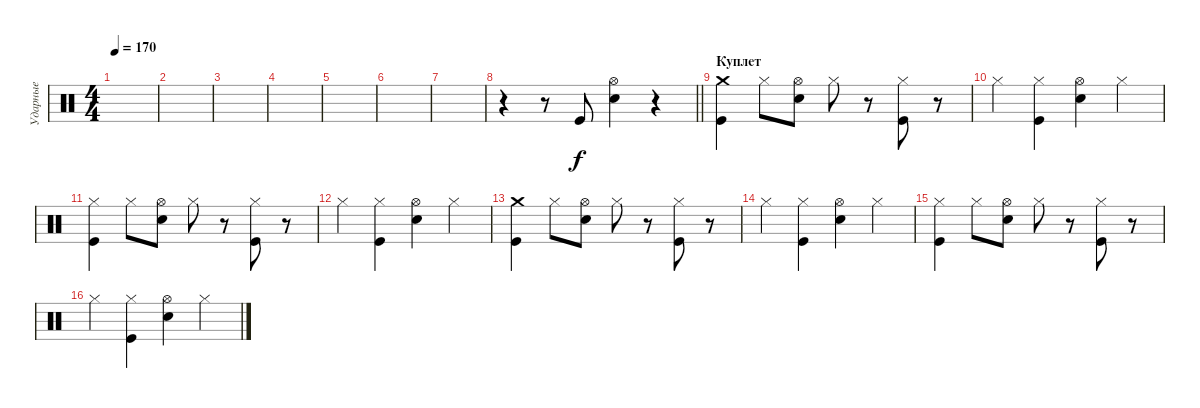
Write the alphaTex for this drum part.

\track ("Ударные" "Ударные") {instrument percussion}
\staff {score}
\articulation defaults
\ts (4 4)
\tempo 170
\clef neutral
\ks c
|
|
|
|
|
|
|
\barLineRight lightlight
r.4 r.8 "Kick (hit)".8 ("Snare (hit) 2" "Hi-Hat (open)").4 r.4 |
\section ("" "Куплет")
("Kick (hit)" "Crash medium (hit)").4 "Hi-Hat (closed)".8 ("Snare (hit) 2" "Hi-Hat (open)").8 "Hi-Hat (closed)".8 r.8 ("Kick (hit)" "Hi-Hat (closed)").8 r.8 |
"Hi-Hat (closed)".4 ("Kick (hit)" "Hi-Hat (closed)").4 ("Snare (hit) 2" "Hi-Hat (open)").4 "Hi-Hat (closed)".4 |
("Kick (hit)" "Hi-Hat (closed)").4 "Hi-Hat (closed)".8 ("Snare (hit) 2" "Hi-Hat (open)").8 "Hi-Hat (closed)".8 r.8 ("Kick (hit)" "Hi-Hat (closed)").8 r.8 |
"Hi-Hat (closed)".4 ("Kick (hit)" "Hi-Hat (closed)").4 ("Snare (hit) 2" "Hi-Hat (open)").4 "Hi-Hat (closed)".4 |
("Kick (hit)" "Crash medium (hit)").4 "Hi-Hat (closed)".8 ("Snare (hit) 2" "Hi-Hat (open)").8 "Hi-Hat (closed)".8 r.8 ("Kick (hit)" "Hi-Hat (closed)").8 r.8 |
"Hi-Hat (closed)".4 ("Kick (hit)" "Hi-Hat (closed)").4 ("Snare (hit) 2" "Hi-Hat (open)").4 "Hi-Hat (closed)".4 |
("Kick (hit)" "Hi-Hat (closed)").4 "Hi-Hat (closed)".8 ("Snare (hit) 2" "Hi-Hat (open)").8 "Hi-Hat (closed)".8 r.8 ("Kick (hit)" "Hi-Hat (closed)").8 r.8 |
"Hi-Hat (closed)".4 ("Kick (hit)" "Hi-Hat (closed)").4 ("Snare (hit) 2" "Hi-Hat (open)").4 "Hi-Hat (closed)".4
